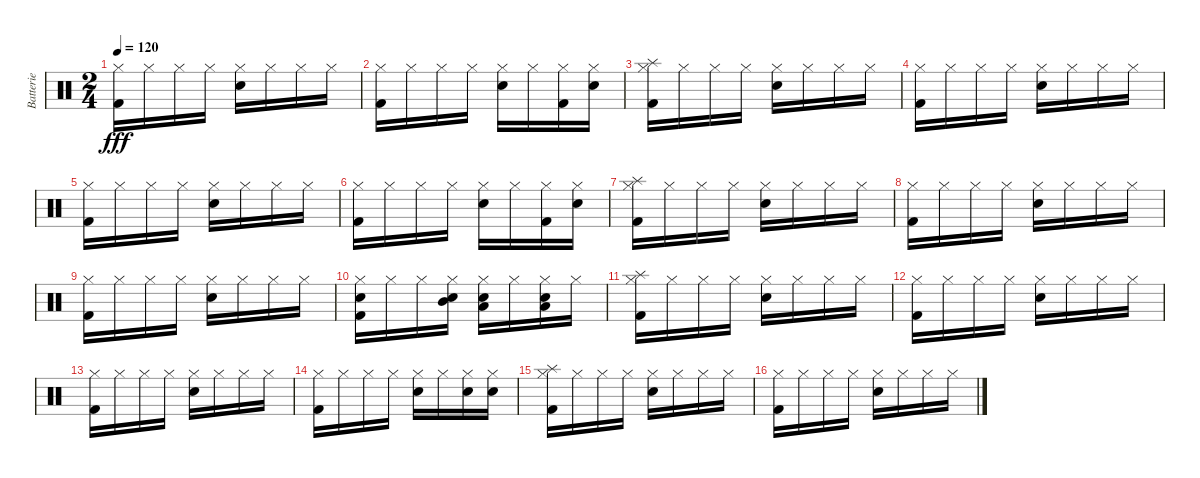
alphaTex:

\track ("Batterie" "Batterie") {instrument percussion}
\staff {score}
\articulation defaults
\ts (2 4)
\tempo 120
\clef neutral
\ks c
("Kick (hit) 2" "Hi-Hat (closed)").16{dy fff} "Hi-Hat (closed)".16 "Hi-Hat (closed)".16 "Hi-Hat (closed)".16 ("Hi-Hat (closed)" "Electric Snare (hit)").16 "Hi-Hat (closed)".16 "Hi-Hat (closed)".16 "Hi-Hat (closed)".16 |
("Kick (hit) 2" "Hi-Hat (closed)").16 "Hi-Hat (closed)".16 "Hi-Hat (closed)".16 "Hi-Hat (closed)".16 ("Electric Snare (hit)" "Hi-Hat (closed)").16 "Hi-Hat (closed)".16 ("Kick (hit) 2" "Hi-Hat (closed)").16 ("Electric Snare (hit)" "Hi-Hat (closed)").16 |
("Kick (hit) 2" "Hi-Hat (closed)" "Splash (hit)").16 "Hi-Hat (closed)".16 "Hi-Hat (closed)".16 "Hi-Hat (closed)".16 ("Hi-Hat (closed)" "Electric Snare (hit)").16 "Hi-Hat (closed)".16 "Hi-Hat (closed)".16 "Hi-Hat (closed)".16 |
("Kick (hit) 2" "Hi-Hat (closed)").16 "Hi-Hat (closed)".16 "Hi-Hat (closed)".16 "Hi-Hat (closed)".16 ("Hi-Hat (closed)" "Electric Snare (hit)").16 "Hi-Hat (closed)".16 "Hi-Hat (closed)".16 "Hi-Hat (closed)".16 |
("Kick (hit) 2" "Hi-Hat (closed)").16 "Hi-Hat (closed)".16 "Hi-Hat (closed)".16 "Hi-Hat (closed)".16 ("Hi-Hat (closed)" "Electric Snare (hit)").16 "Hi-Hat (closed)".16 "Hi-Hat (closed)".16 "Hi-Hat (closed)".16 |
("Kick (hit) 2" "Hi-Hat (closed)").16 "Hi-Hat (closed)".16 "Hi-Hat (closed)".16 "Hi-Hat (closed)".16 ("Electric Snare (hit)" "Hi-Hat (closed)").16 "Hi-Hat (closed)".16 ("Kick (hit) 2" "Hi-Hat (closed)").16 ("Electric Snare (hit)" "Hi-Hat (closed)").16 |
("Kick (hit) 2" "Hi-Hat (closed)" "Splash (hit)").16 "Hi-Hat (closed)".16 "Hi-Hat (closed)".16 "Hi-Hat (closed)".16 ("Hi-Hat (closed)" "Electric Snare (hit)").16 "Hi-Hat (closed)".16 "Hi-Hat (closed)".16 "Hi-Hat (closed)".16 |
("Kick (hit) 2" "Hi-Hat (closed)").16 "Hi-Hat (closed)".16 "Hi-Hat (closed)".16 "Hi-Hat (closed)".16 ("Hi-Hat (closed)" "Electric Snare (hit)").16 "Hi-Hat (closed)".16 "Hi-Hat (closed)".16 "Hi-Hat (closed)".16 |
("Kick (hit) 2" "Hi-Hat (closed)").16 "Hi-Hat (closed)".16 "Hi-Hat (closed)".16 "Hi-Hat (closed)".16 ("Hi-Hat (closed)" "Electric Snare (hit)").16 "Hi-Hat (closed)".16 "Hi-Hat (closed)".16 "Hi-Hat (closed)".16 |
("Kick (hit) 2" "Hi-Hat (closed)" "Electric Snare (hit)").16 "Hi-Hat (closed)".16 "Hi-Hat (closed)".16 ("Mid Tom (hit)" "Electric Snare (hit)" "Hi-Hat (closed)").16 ("Low Tom (hit)" "Electric Snare (hit)" "Hi-Hat (closed)").16 "Hi-Hat (closed)".16 ("Low Tom (hit)" "Hi-Hat (closed)" "Electric Snare (hit)").16 "Hi-Hat (closed)".16 |
("Kick (hit) 2" "Hi-Hat (closed)" "Splash (hit)").16 "Hi-Hat (closed)".16 "Hi-Hat (closed)".16 "Hi-Hat (closed)".16 ("Hi-Hat (closed)" "Electric Snare (hit)").16 "Hi-Hat (closed)".16 "Hi-Hat (closed)".16 "Hi-Hat (closed)".16 |
("Kick (hit) 2" "Hi-Hat (closed)").16 "Hi-Hat (closed)".16 "Hi-Hat (closed)".16 "Hi-Hat (closed)".16 ("Hi-Hat (closed)" "Electric Snare (hit)").16 "Hi-Hat (closed)".16 "Hi-Hat (closed)".16 "Hi-Hat (closed)".16 |
("Kick (hit) 2" "Hi-Hat (closed)").16 "Hi-Hat (closed)".16 "Hi-Hat (closed)".16 "Hi-Hat (closed)".16 ("Hi-Hat (closed)" "Electric Snare (hit)").16 "Hi-Hat (closed)".16 "Hi-Hat (closed)".16 "Hi-Hat (closed)".16 |
("Kick (hit) 2" "Hi-Hat (closed)").16 "Hi-Hat (closed)".16 "Hi-Hat (closed)".16 "Hi-Hat (closed)".16 ("Electric Snare (hit)" "Hi-Hat (closed)").16 "Hi-Hat (closed)".16 ("Electric Snare (hit)" "Hi-Hat (closed)").16 ("Electric Snare (hit)" "Hi-Hat (closed)").16 |
("Kick (hit) 2" "Hi-Hat (closed)" "Splash (hit)").16 "Hi-Hat (closed)".16 "Hi-Hat (closed)".16 "Hi-Hat (closed)".16 ("Hi-Hat (closed)" "Electric Snare (hit)").16 "Hi-Hat (closed)".16 "Hi-Hat (closed)".16 "Hi-Hat (closed)".16 |
("Kick (hit) 2" "Hi-Hat (closed)").16 "Hi-Hat (closed)".16 "Hi-Hat (closed)".16 "Hi-Hat (closed)".16 ("Hi-Hat (closed)" "Electric Snare (hit)").16 "Hi-Hat (closed)".16 "Hi-Hat (closed)".16 "Hi-Hat (closed)".16
